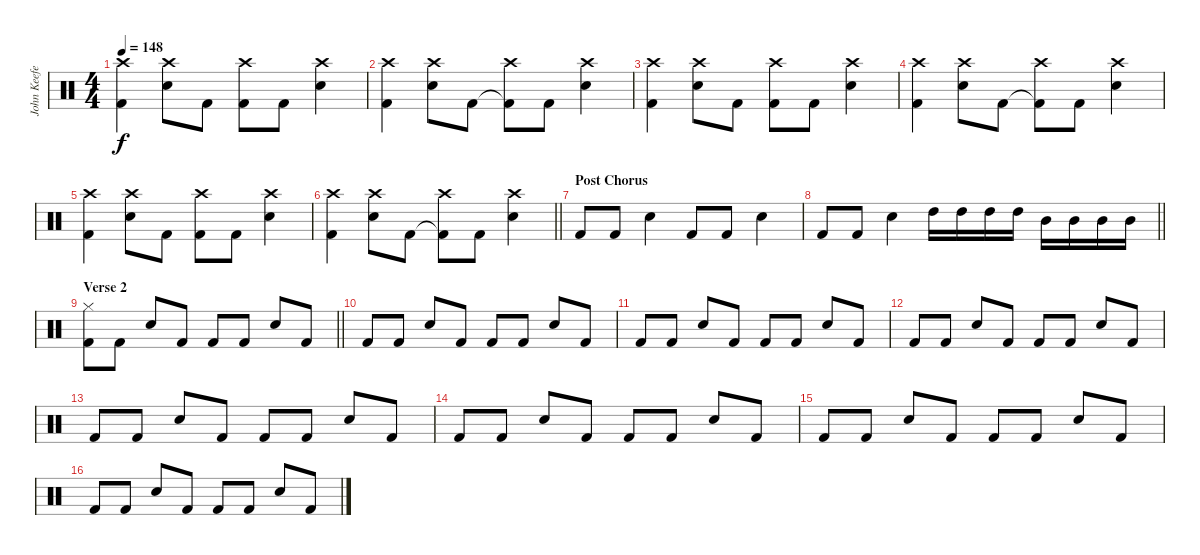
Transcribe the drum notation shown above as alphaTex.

\track ("John Keefe (Percussion)" "John Keefe") {instrument percussion}
\staff {score}
\articulation defaults
\ts (4 4)
\tempo 148
\clef neutral
\ks c
("Crash high (hit)" "Kick (hit) 2").4{dy f} ("Snare (hit) 2" "Crash high (hit)").8 "Kick (hit) 2".8 ("Kick (hit) 2" "Crash high (hit)").8 "Kick (hit) 2".8 ("Snare (hit) 2" "Crash high (hit)").4 |
("Kick (hit) 2" "Crash high (hit)").4 ("Snare (hit) 2" "Crash high (hit)").8 "Kick (hit) 2".8 ("Kick (hit) 2"{t} "Crash high (hit)").8 "Kick (hit) 2".8 ("Snare (hit) 2" "Crash high (hit)").4 |
("Crash high (hit)" "Kick (hit) 2").4 ("Snare (hit) 2" "Crash high (hit)").8 "Kick (hit) 2".8 ("Kick (hit) 2" "Crash high (hit)").8 "Kick (hit) 2".8 ("Snare (hit) 2" "Crash high (hit)").4 |
("Kick (hit) 2" "Crash high (hit)").4 ("Snare (hit) 2" "Crash high (hit)").8 "Kick (hit) 2".8 ("Kick (hit) 2"{t} "Crash high (hit)").8 "Kick (hit) 2".8 ("Snare (hit) 2" "Crash high (hit)").4 |
("Crash high (hit)" "Kick (hit) 2").4 ("Snare (hit) 2" "Crash high (hit)").8 "Kick (hit) 2".8 ("Kick (hit) 2" "Crash high (hit)").8 "Kick (hit) 2".8 ("Snare (hit) 2" "Crash high (hit)").4 |
\barLineRight lightlight
("Kick (hit) 2" "Crash high (hit)").4 ("Snare (hit) 2" "Crash high (hit)").8 "Kick (hit) 2".8 ("Kick (hit) 2"{t} "Crash high (hit)").8 "Kick (hit) 2".8 ("Snare (hit) 2" "Crash high (hit)").4 |
\section ("" "Post Chorus")
"Kick (hit) 2".8 "Kick (hit) 2".8 "Snare (hit) 2".4 "Kick (hit) 2".8 "Kick (hit) 2".8 "Snare (hit) 2".4 |
\barLineRight lightlight "Kick (hit) 2".8 "Kick (hit) 2".8 "Snare (hit) 2".4 "High Tom (hit)".16 "High Tom (hit)".16 "High Tom (hit)".16 "High Tom (hit)".16 "Mid Tom (hit)".16 "Mid Tom (hit)".16 "Mid Tom (hit)".16 "Mid Tom (hit)".16
|
\section ("" "Verse 2")
\barLineRight lightlight
("Hi-Hat (closed)" "Kick (hit) 2").8 "Kick (hit) 2".8 "Snare (hit) 2".8 "Kick (hit) 2".8 "Kick (hit) 2".8 "Kick (hit) 2".8 "Snare (hit) 2".8 "Kick (hit) 2".8 |
"Kick (hit) 2".8 "Kick (hit) 2".8 "Snare (hit) 2".8 "Kick (hit) 2".8 "Kick (hit) 2".8 "Kick (hit) 2".8 "Snare (hit) 2".8 "Kick (hit) 2".8 |
"Kick (hit) 2".8 "Kick (hit) 2".8 "Snare (hit) 2".8 "Kick (hit) 2".8 "Kick (hit) 2".8 "Kick (hit) 2".8 "Snare (hit) 2".8 "Kick (hit) 2".8 |
"Kick (hit) 2".8 "Kick (hit) 2".8 "Snare (hit) 2".8 "Kick (hit) 2".8 "Kick (hit) 2".8 "Kick (hit) 2".8 "Snare (hit) 2".8 "Kick (hit) 2".8 |
"Kick (hit) 2".8 "Kick (hit) 2".8 "Snare (hit) 2".8 "Kick (hit) 2".8 "Kick (hit) 2".8 "Kick (hit) 2".8 "Snare (hit) 2".8 "Kick (hit) 2".8 |
"Kick (hit) 2".8 "Kick (hit) 2".8 "Snare (hit) 2".8 "Kick (hit) 2".8 "Kick (hit) 2".8 "Kick (hit) 2".8 "Snare (hit) 2".8 "Kick (hit) 2".8 |
"Kick (hit) 2".8 "Kick (hit) 2".8 "Snare (hit) 2".8 "Kick (hit) 2".8 "Kick (hit) 2".8 "Kick (hit) 2".8 "Snare (hit) 2".8 "Kick (hit) 2".8 |
"Kick (hit) 2".8 "Kick (hit) 2".8 "Snare (hit) 2".8 "Kick (hit) 2".8 "Kick (hit) 2".8 "Kick (hit) 2".8 "Snare (hit) 2".8 "Kick (hit) 2".8
